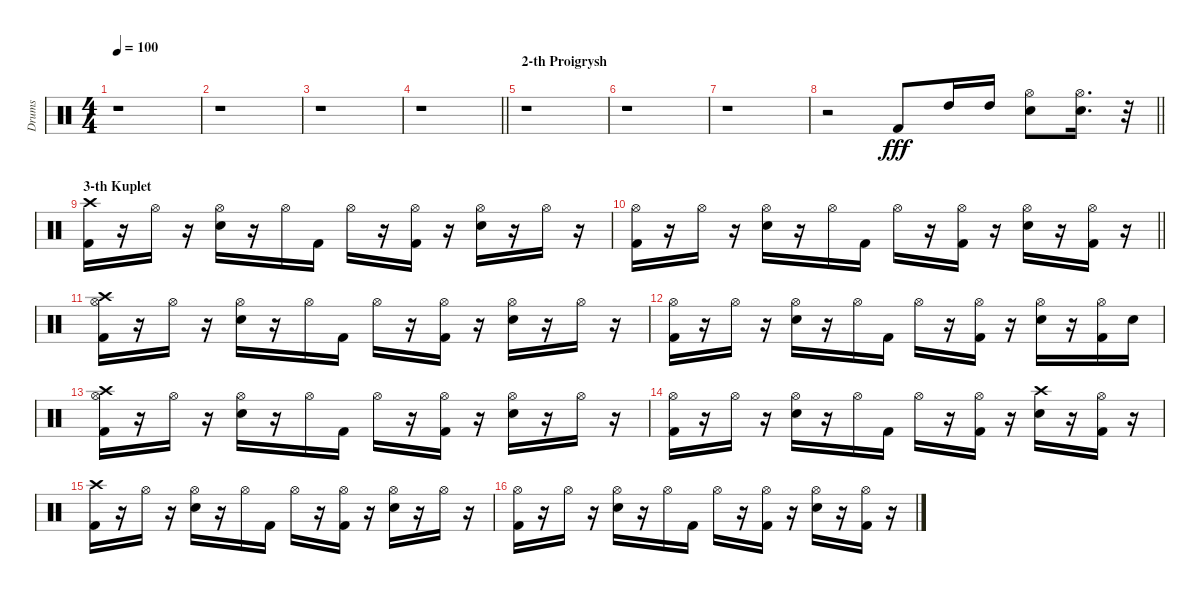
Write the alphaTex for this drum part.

\track ("Drums" "Drums") {instrument percussion}
\staff {score}
\articulation defaults
\ts (4 4)
\tempo 100
\clef neutral
\ks c
r.1{dy fff} |
r.1 |
r.1 |
\barLineRight lightlight
r.1 |
\section ("" "2-th Proigrysh")
r.1 |
r.1 |
r.1 |
\barLineRight lightlight
r.2 "Kick (hit) 2".8 "High Tom (hit)".16 "High Tom (hit)".16 ("Snare (hit) 2" "Hi-Hat (open)").8 ("Snare (hit) 2" "Hi-Hat (open)").16{d} r.32 |
\section ("" "3-th Kuplet")
("Kick (hit) 2" "Crash high (hit)").16 r.16 "Hi-Hat (open)".16 r.16 ("Snare (hit) 2" "Hi-Hat (open)").16 r.16 "Hi-Hat (open)".16 "Kick (hit) 2".16 "Hi-Hat (open)".16 r.16 ("Kick (hit) 2" "Hi-Hat (open)").16 r.16 ("Hi-Hat (open)" "Snare (hit) 2").16 r.16 "Hi-Hat (open)".16 r.16 |
\barLineRight lightlight
("Kick (hit) 2" "Hi-Hat (open)").16 r.16 "Hi-Hat (open)".16 r.16 ("Snare (hit) 2" "Hi-Hat (open)").16 r.16 "Hi-Hat (open)".16 "Kick (hit) 2".16 "Hi-Hat (open)".16 r.16 ("Kick (hit) 2" "Hi-Hat (open)").16 r.16 ("Snare (hit) 2" "Hi-Hat (open)").16 r.16 ("Hi-Hat (open)" "Kick (hit) 2").16 r.16 |
("Hi-Hat (open)" "Kick (hit) 2" "Crash high (hit)").16 r.16 "Hi-Hat (open)".16 r.16 ("Hi-Hat (open)" "Snare (hit) 2").16 r.16 "Hi-Hat (open)".16 "Kick (hit) 2".16 "Hi-Hat (open)".16 r.16 ("Kick (hit) 2" "Hi-Hat (open)").16 r.16 ("Hi-Hat (open)" "Snare (hit) 2").16 r.16 "Hi-Hat (open)".16 r.16 |
("Hi-Hat (open)" "Kick (hit) 2").16 r.16 "Hi-Hat (open)".16 r.16 ("Hi-Hat (open)" "Snare (hit) 2").16 r.16 "Hi-Hat (open)".16 "Kick (hit) 2".16 "Hi-Hat (open)".16 r.16 ("Kick (hit) 2" "Hi-Hat (open)").16 r.16 ("Hi-Hat (open)" "Snare (hit) 2").16 r.16 ("Hi-Hat (open)" "Kick (hit) 2").16 "Snare (hit) 2".16 |
("Kick (hit) 2" "Crash high (hit)" "Hi-Hat (open)").16 r.16 "Hi-Hat (open)".16 r.16 ("Snare (hit) 2" "Hi-Hat (open)").16 r.16 "Hi-Hat (open)".16 "Kick (hit) 2".16 "Hi-Hat (open)".16 r.16 ("Kick (hit) 2" "Hi-Hat (open)").16 r.16 ("Snare (hit) 2" "Hi-Hat (open)").16 r.16 "Hi-Hat (open)".16 r.16 |
("Kick (hit) 2" "Hi-Hat (open)").16 r.16 "Hi-Hat (open)".16 r.16 ("Snare (hit) 2" "Hi-Hat (open)").16 r.16 "Hi-Hat (open)".16 "Kick (hit) 2".16 "Hi-Hat (open)".16 r.16 ("Kick (hit) 2" "Hi-Hat (open)").16 r.16 ("Snare (hit) 2" "Crash high (hit)").16 r.16 ("Hi-Hat (open)" "Kick (hit) 2").16 r.16 |
("Kick (hit) 2" "Crash high (hit)").16 r.16 "Hi-Hat (open)".16 r.16 ("Snare (hit) 2" "Hi-Hat (open)").16 r.16 "Hi-Hat (open)".16 "Kick (hit) 2".16 "Hi-Hat (open)".16 r.16 ("Kick (hit) 2" "Hi-Hat (open)").16 r.16 ("Hi-Hat (open)" "Snare (hit) 2").16 r.16 "Hi-Hat (open)".16 r.16 |
("Kick (hit) 2" "Hi-Hat (open)").16 r.16 "Hi-Hat (open)".16 r.16 ("Snare (hit) 2" "Hi-Hat (open)").16 r.16 "Hi-Hat (open)".16 "Kick (hit) 2".16 "Hi-Hat (open)".16 r.16 ("Kick (hit) 2" "Hi-Hat (open)").16 r.16 ("Snare (hit) 2" "Hi-Hat (open)").16 r.16 ("Hi-Hat (open)" "Kick (hit) 2").16 r.16
